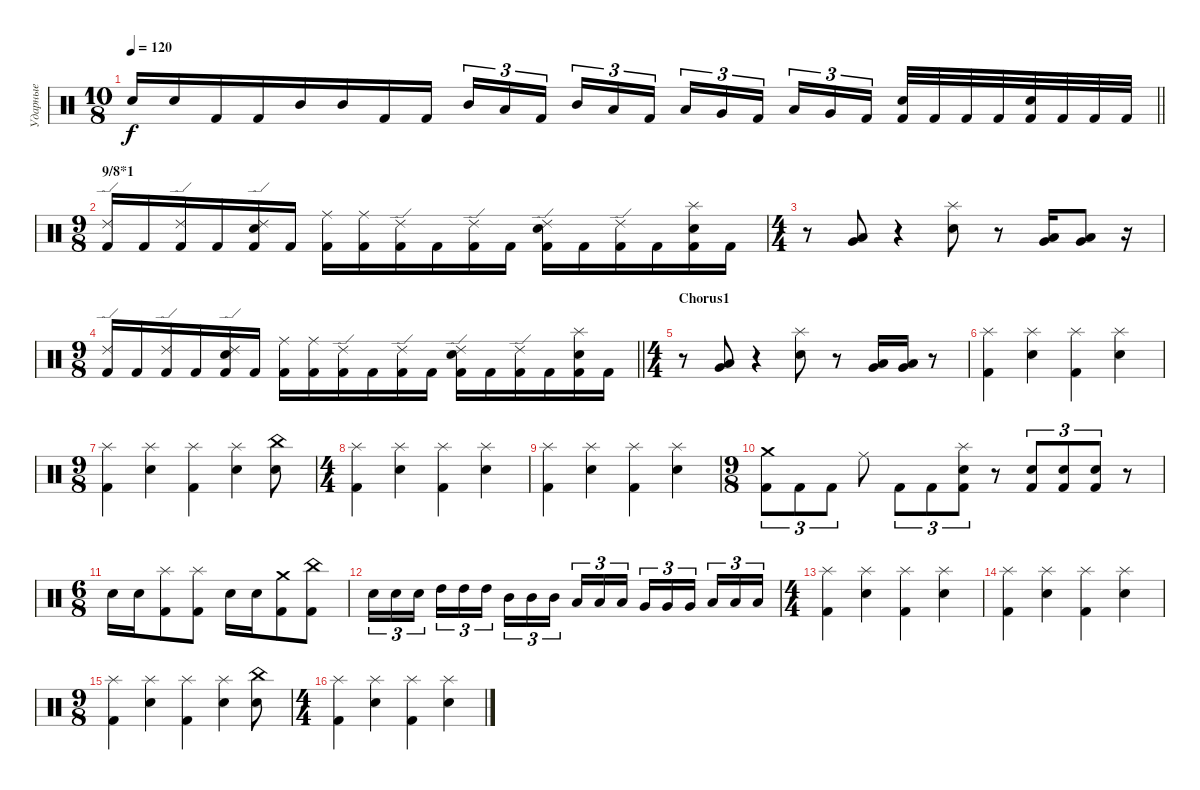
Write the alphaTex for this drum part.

\track ("Ударные" "Ударные") {instrument percussion}
\staff {score}
\articulation defaults
\ts (10 8)
\tempo 120
\clef neutral
\barLineRight lightlight
\ks c "Snare (hit) 2".16{dy f} "Snare (hit) 2".16 "Kick (hit) 2".16 "Kick (hit) 2".16 "Mid Tom (hit)".16 "Mid Tom (hit)".16 "Kick (hit) 2".16 "Kick (hit) 2".16 "Mid Tom (hit)".16{tu (3 2)} "Low Tom (hit)".16{tu (3 2)} "Kick (hit) 2".16{tu (3 2)} "Mid Tom (hit)".16{tu (3 2)} "Low Tom (hit)".16{tu (3 2)} "Kick (hit) 2".16{tu (3 2)} "Low Tom (hit)".16{tu (3 2)} "Very Low Tom (hit)".16{tu (3 2)} "Kick (hit) 2".16{tu (3 2)} "Low Tom (hit)".16{tu (3 2)} "Very Low Tom (hit)".16{tu (3 2)} "Kick (hit) 2".16{tu (3 2)}
("Snare (hit) 2" "Kick (hit) 2").32 "Kick (hit) 2".32 "Kick (hit) 2".32 "Kick (hit) 2".32 ("Snare (hit) 2" "Kick (hit) 2").32 "Kick (hit) 2".32 "Kick (hit) 2".32 "Kick (hit) 2".32 |
\ts (9 8)
\section ("" "9/8*1")
("Ride (edge) 2" "Kick (hit) 2").16 "Kick (hit) 2".16 ("Ride (edge) 2" "Kick (hit) 2").16 "Kick (hit) 2".16 ("Ride (edge) 2" "Snare (hit) 2" "Kick (hit) 2").16 "Kick (hit) 2".16 ("Ride (middle)" "Kick (hit) 2").16 ("Ride (middle)" "Kick (hit) 2").16 ("Ride (edge) 2" "Kick (hit) 2").16 "Kick (hit) 2".16 ("Ride (edge) 2" "Kick (hit) 2").16 "Kick (hit) 2".16 ("Ride (edge) 2" "Snare (hit) 2" "Kick (hit) 2").16 "Kick (hit) 2".16 ("Ride (edge) 2" "Kick (hit) 2").16 "Kick (hit) 2".16 ("Splash (hit)" "Snare (hit) 2" "Kick (hit) 2").16 "Kick (hit) 2".16 |
\ts (4 4)
r.8 ("Very Low Tom (hit)" "Low Floor Tom (hit)").8 r.4 ("Splash (hit)" "Snare (hit) 2").8 r.8 ("Very Low Tom (hit)" "Low Floor Tom (hit)").16 ("Very Low Tom (hit)" "Low Floor Tom (hit)").8 r.16 |
\ts (9 8)
\barLineRight lightlight
("Ride (edge) 2" "Kick (hit) 2").16 "Kick (hit) 2".16 ("Ride (edge) 2" "Kick (hit) 2").16 "Kick (hit) 2".16 ("Ride (edge) 2" "Snare (hit) 2" "Kick (hit) 2").16 "Kick (hit) 2".16 ("Ride (middle)" "Kick (hit) 2").16 ("Ride (middle)" "Kick (hit) 2").16 ("Ride (edge) 2" "Kick (hit) 2").16 "Kick (hit) 2".16 ("Ride (edge) 2" "Kick (hit) 2").16 "Kick (hit) 2".16 ("Ride (edge) 2" "Snare (hit) 2" "Kick (hit) 2").16 "Kick (hit) 2".16 ("Ride (edge) 2" "Kick (hit) 2").16 "Kick (hit) 2".16 ("Splash (hit)" "Snare (hit) 2" "Kick (hit) 2").16 "Kick (hit) 2".16 |
\ts (4 4)
\section ("" "Chorus1")
r.8 ("Very Low Tom (hit)" "Low Floor Tom (hit)").8 r.4 ("Splash (hit)" "Snare (hit) 2").8 r.8 ("Very Low Tom (hit)" "Low Floor Tom (hit)").16 ("Very Low Tom (hit)" "Low Floor Tom (hit)").16 r.8 |
("Splash (hit)" "Kick (hit) 2").4 ("Splash (hit)" "Snare (hit) 2").4 ("Splash (hit)" "Kick (hit) 2").4 ("Splash (hit)" "Snare (hit) 2").4 |
\ts (9 8)
("Splash (hit)" "Kick (hit) 2").4 ("Splash (hit)" "Snare (hit) 2").4 ("Splash (hit)" "Kick (hit) 2").4 ("Splash (hit)" "Snare (hit) 2").4 ("China (hit)" "Snare (hit) 2").8 |
\ts (4 4)
("Splash (hit)" "Kick (hit) 2").4 ("Splash (hit)" "Snare (hit) 2").4 ("Splash (hit)" "Kick (hit) 2").4 ("Splash (hit)" "Snare (hit) 2").4 |
("Splash (hit)" "Kick (hit) 2").4 ("Splash (hit)" "Snare (hit) 2").4 ("Splash (hit)" "Kick (hit) 2").4 ("Splash (hit)" "Snare (hit) 2").4 |
\ts (9 8)
("Crash medium (hit)" "Kick (hit) 2").8{tu (3 2)} "Kick (hit) 2".8{tu (3 2)} "Kick (hit) 2".8{tu (3 2)} "Ride (middle)".8 "Kick (hit) 2".8{tu (3 2)} "Kick (hit) 2".8{tu (3 2)} ("Splash (hit)" "Snare (hit) 2" "Kick (hit) 2").8{tu (3 2)} r.8 ("Snare (hit) 2" "Kick (hit) 2").8{tu (3 2)} ("Snare (hit) 2" "Kick (hit) 2").8{tu (3 2)} ("Snare (hit) 2" "Kick (hit) 2").8{tu (3 2)} r.8 |
\ts (6 8)
"Snare (hit) 2".16 "Snare (hit) 2".16 ("Splash (hit)" "Kick (hit) 2").8 ("Splash (hit)" "Kick (hit) 2").8 "Snare (hit) 2".16 "Snare (hit) 2".16 ("Crash medium (hit)" "Kick (hit) 2").8 ("China (hit)" "Kick (hit) 2").8 |
"Snare (hit) 2".16{tu (3 2)} "Snare (hit) 2".16{tu (3 2)} "Snare (hit) 2".16{tu (3 2)} "High Tom (hit)".16{tu (3 2)} "High Tom (hit)".16{tu (3 2)} "High Tom (hit)".16{tu (3 2)} "Mid Tom (hit)".16{tu (3 2)} "Mid Tom (hit)".16{tu (3 2)} "Mid Tom (hit)".16{tu (3 2)} "Low Tom (hit)".16{tu (3 2)} "Low Tom (hit)".16{tu (3 2)} "Low Tom (hit)".16{tu (3 2)} "Very Low Tom (hit)".16{tu (3 2)} "Very Low Tom (hit)".16{tu (3 2)} "Very Low Tom (hit)".16{tu (3 2)} "Low Floor Tom (hit)".16{tu (3 2)} "Low Floor Tom (hit)".16{tu (3 2)} "Low Floor Tom (hit)".16{tu (3 2)} |
\ts (4 4)
("Splash (hit)" "Kick (hit) 2").4 ("Splash (hit)" "Snare (hit) 2").4 ("Splash (hit)" "Kick (hit) 2").4 ("Splash (hit)" "Snare (hit) 2").4 |
("Splash (hit)" "Kick (hit) 2").4 ("Splash (hit)" "Snare (hit) 2").4 ("Splash (hit)" "Kick (hit) 2").4 ("Splash (hit)" "Snare (hit) 2").4 |
\ts (9 8)
("Splash (hit)" "Kick (hit) 2").4 ("Splash (hit)" "Snare (hit) 2").4 ("Splash (hit)" "Kick (hit) 2").4 ("Splash (hit)" "Snare (hit) 2").4 ("China (hit)" "Snare (hit) 2").8 |
\ts (4 4)
("Splash (hit)" "Kick (hit) 2").4 ("Splash (hit)" "Snare (hit) 2").4 ("Splash (hit)" "Kick (hit) 2").4 ("Splash (hit)" "Snare (hit) 2").4
